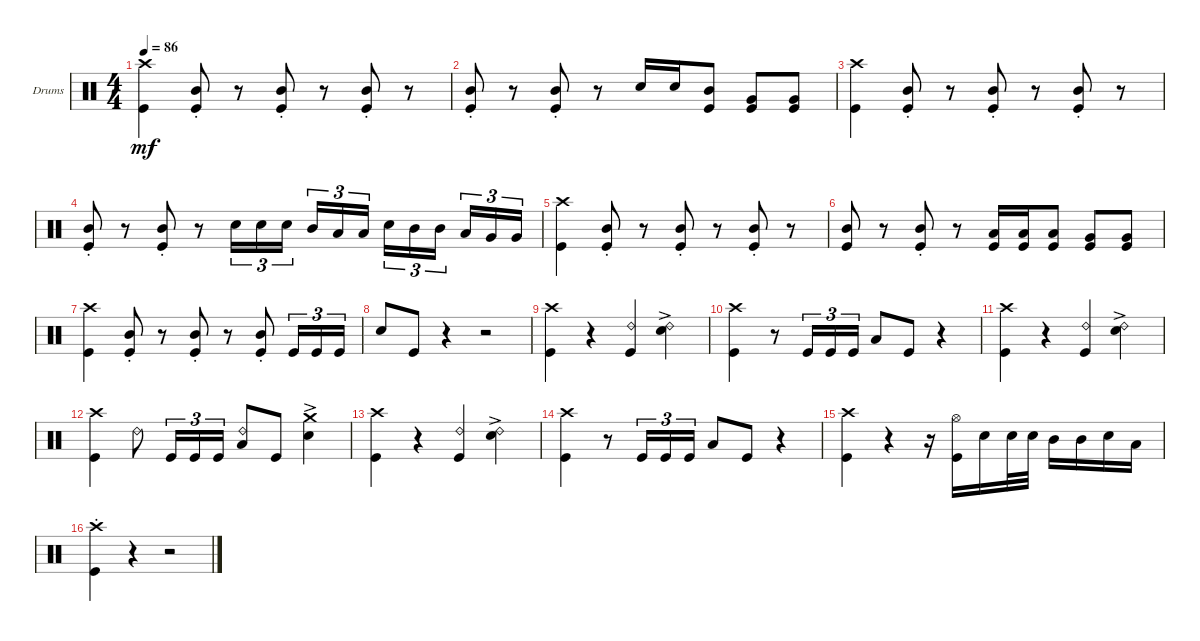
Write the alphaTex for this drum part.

\defaultSystemsLayout 4
\bracketExtendMode groupsimilarinstruments
\firstSystemTrackNameOrientation horizontal
\otherSystemsTrackNameOrientation horizontal
\track ("Drumkit" "Drums") {instrument percussion}
\staff {score}
\articulation defaults
\ts (4 4)
\tempo 86
\clef neutral
\scale
0.26178
\ks c
("Crash high (hit)" "Kick (hit)").4{dy mf} ("Kick (hit)" "Mid Tom (hit)"{st}).8 r.8 ("Mid Tom (hit)"{st} "Kick (hit)").8 r.8 ("Kick (hit)" "Mid Tom (hit)"{st}).8 r.8 |
\scale
0.322862 ("Mid Tom (hit)"{st} "Kick (hit)").8 r.8 ("Kick (hit)" "Mid Tom (hit)"{st}).8 r.8 "Snare (hit) 2".16 "Snare (hit) 2".16 ("Kick (hit)" "Mid Tom (hit)").8 ("Very Low Tom (hit)" "Kick (hit)").8 ("Very Low Tom (hit)" "Kick (hit)").8 |
\scale
0.255102 ("Crash high (hit)" "Kick (hit)").4 ("Kick (hit)" "Mid Tom (hit)"{st}).8 r.8 ("Mid Tom (hit)"{st} "Kick (hit)").8 r.8 ("Kick (hit)" "Mid Tom (hit)"{st}).8 r.8 |
\scale
0.489796 ("Mid Tom (hit)"{st} "Kick (hit)").8 r.8 ("Kick (hit)" "Mid Tom (hit)"{st}).8 r.8 "Snare (hit) 2".16{tu (3 2)} "Snare (hit) 2".16{tu (3 2)} "Snare (hit) 2".16{tu (3 2)} "Mid Tom (hit)".16{tu (3 2)} "Low Tom (hit)".16{tu (3 2)} "Low Tom (hit)".16{tu (3 2)} "Snare (hit) 2".16{tu (3 2)} "Mid Tom (hit)".16{tu (3 2)} "Mid Tom (hit)".16{tu (3 2)} "Low Tom (hit)".16{tu (3 2)} "Very Low Tom (hit)".16{tu (3 2)} "Very Low Tom (hit)".16{tu (3 2)} |
\scale
0.255102 ("Crash high (hit)" "Kick (hit)").4 ("Kick (hit)" "Mid Tom (hit)"{st}).8 r.8 ("Mid Tom (hit)"{st} "Kick (hit)").8 r.8 ("Kick (hit)" "Mid Tom (hit)"{st}).8 r.8 |
\scale
0.355086 ("Mid Tom (hit)" "Kick (hit)").8 r.8 ("Kick (hit)" "Mid Tom (hit)"{st}).8 r.8 ("Kick (hit)" "Low Tom (hit)").16 ("Kick (hit)" "Low Tom (hit)").16 ("Kick (hit)" "Low Tom (hit)").8 ("Very Low Tom (hit)" "Kick (hit)").8 ("Very Low Tom (hit)" "Kick (hit)").8 |
\scale
0.422265 ("Crash high (hit)" "Kick (hit)").4 ("Kick (hit)" "Mid Tom (hit)"{st}).8 r.8 ("Mid Tom (hit)"{st} "Kick (hit)").8 r.8 ("Kick (hit)" "Mid Tom (hit)"{st}).8 "Kick (hit)".16{tu (3 2)} "Kick (hit)".16{tu (3 2)} "Kick (hit)".16{tu (3 2)} |
\scale
0.222649 "Snare (hit) 2".8 "Kick (hit)".8 r.4 r.2 |
\scale
0.269058 ("Kick (hit)" "Crash high (hit)").4 r.4 ("Ride (bell) 2" "Kick (hit)").4 ("Snare (hit) 2"{ac} "Ride (bell) 2").4 |
\scale
0.461883 ("Kick (hit)" "Crash high (hit)").4 r.8 "Kick (hit)".16{tu (3 2)} "Kick (hit)".16{tu (3 2)} "Kick (hit)".16{tu (3 2)} "Low Tom (hit)".8 "Kick (hit)".8 r.4 |
\scale
0.269058 ("Kick (hit)" "Crash high (hit)").4 r.4 ("Ride (bell) 2" "Kick (hit)").4 ("Snare (hit) 2"{ac} "Ride (bell) 2").4 |
\scale
0.387218 ("Kick (hit)" "Crash high (hit)").4 "Ride (bell) 2".8 "Kick (hit)".16{tu (3 2)} "Kick (hit)".16{tu (3 2)} "Kick (hit)".16{tu (3 2)} ("Low Tom (hit)" "Ride (bell) 2").8 "Kick (hit)".8 ("Crash medium (hit)" "Snare (hit) 2"{ac}).4 |
\scale
0.225564 ("Kick (hit)" "Crash high (hit)").4 r.4 ("Ride (bell) 2" "Kick (hit)").4 ("Snare (hit) 2"{ac} "Ride (bell) 2").4 |
\scale
0.387218 ("Kick (hit)" "Crash high (hit)").4 r.8 "Kick (hit)".16{tu (3 2)} "Kick (hit)".16{tu (3 2)} "Kick (hit)".16{tu (3 2)} "Low Tom (hit)".8 "Kick (hit)".8 r.4 |
\scale
0.485194 ("Kick (hit)" "Crash high (hit)").4 r.4 r.16 ("Kick (hit)" "Hi-Hat (open)").16 "Snare (hit) 2".16 "Snare (hit) 2".32 "Snare (hit) 2".32 "Mid Tom (hit)".16 "Mid Tom (hit)".16 "Snare (hit) 2".16 "Low Tom (hit)".16 |
\scale
0.241458 ("Kick (hit)" "Crash high (hit)"{st}).4 r.4 r.2
